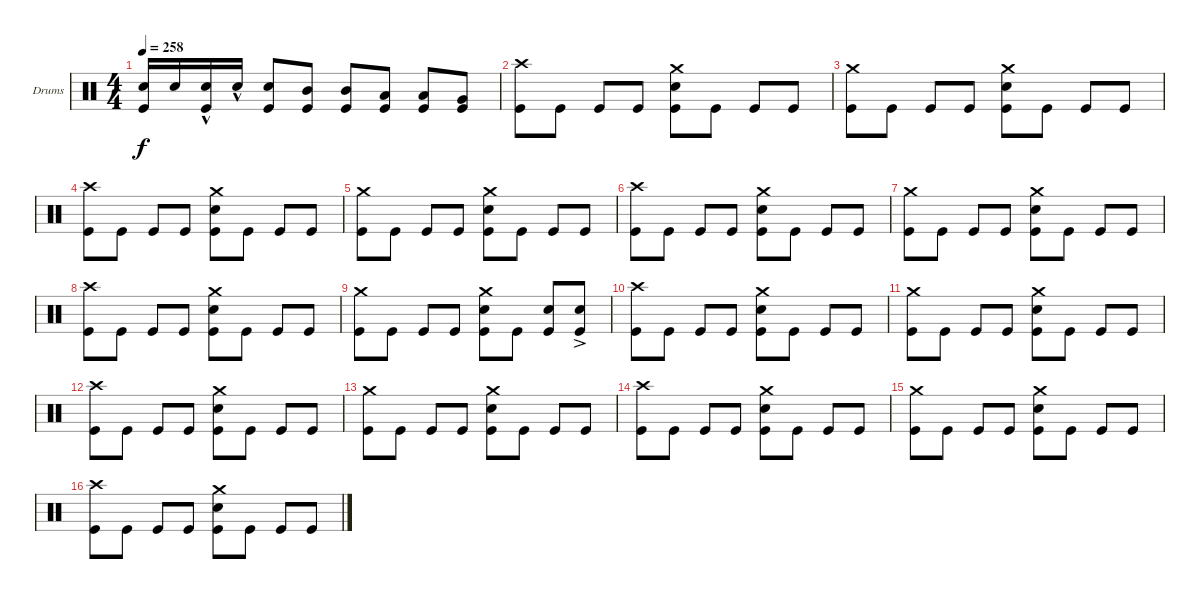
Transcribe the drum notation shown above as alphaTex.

\defaultSystemsLayout 4
\bracketExtendMode groupsimilarinstruments
\firstSystemTrackNameOrientation horizontal
\otherSystemsTrackNameOrientation horizontal
\track ("Drumkit" "Drums") {instrument percussion}
\staff {score}
\articulation defaults
\ts (4 4)
\tempo 258
\clef neutral
\ks c
("Snare (hit) 2" "Kick (hit)").16{dy f} "Snare (hit) 2".16 ("Snare (hit) 2"{hac} "Kick (hit)").16 "Snare (hit) 2"{hac}.16 ("Snare (hit) 2" "Kick (hit)").8 ("Kick (hit)" "Mid Tom (hit)").8 ("Mid Tom (hit)" "Kick (hit)").8 ("Low Tom (hit)" "Kick (hit)").8 ("Low Tom (hit)" "Kick (hit)").8 ("Very Low Tom (hit)" "Kick (hit)").8 |
("Kick (hit)" "Crash high (hit)").8 "Kick (hit)".8 "Kick (hit)".8 "Kick (hit)".8 ("Kick (hit)" "Crash medium (hit)" "Snare (hit) 2").8 "Kick (hit)".8 "Kick (hit)".8 "Kick (hit)".8 |
("Crash medium (hit)" "Kick (hit)").8 "Kick (hit)".8 "Kick (hit)".8 "Kick (hit)".8 ("Kick (hit)" "Snare (hit) 2" "Crash medium (hit)").8 "Kick (hit)".8 "Kick (hit)".8 "Kick (hit)".8 |
("Kick (hit)" "Crash high (hit)").8 "Kick (hit)".8 "Kick (hit)".8 "Kick (hit)".8 ("Kick (hit)" "Crash medium (hit)" "Snare (hit) 2").8 "Kick (hit)".8 "Kick (hit)".8 "Kick (hit)".8 |
("Crash medium (hit)" "Kick (hit)").8 "Kick (hit)".8 "Kick (hit)".8 "Kick (hit)".8 ("Kick (hit)" "Snare (hit) 2" "Crash medium (hit)").8 "Kick (hit)".8 "Kick (hit)".8 "Kick (hit)".8 |
("Kick (hit)" "Crash high (hit)").8 "Kick (hit)".8 "Kick (hit)".8 "Kick (hit)".8 ("Kick (hit)" "Crash medium (hit)" "Snare (hit) 2").8 "Kick (hit)".8 "Kick (hit)".8 "Kick (hit)".8 |
("Crash medium (hit)" "Kick (hit)").8 "Kick (hit)".8 "Kick (hit)".8 "Kick (hit)".8 ("Kick (hit)" "Snare (hit) 2" "Crash medium (hit)").8 "Kick (hit)".8 "Kick (hit)".8 "Kick (hit)".8 |
("Kick (hit)" "Crash high (hit)").8 "Kick (hit)".8 "Kick (hit)".8 "Kick (hit)".8 ("Kick (hit)" "Crash medium (hit)" "Snare (hit) 2").8 "Kick (hit)".8 "Kick (hit)".8 "Kick (hit)".8 |
("Crash medium (hit)" "Kick (hit)").8 "Kick (hit)".8 "Kick (hit)".8 "Kick (hit)".8 ("Kick (hit)" "Snare (hit) 2" "Crash medium (hit)").8 "Kick (hit)".8 ("Kick (hit)" "Snare (hit) 2").8 ("Kick (hit)" "Snare (hit) 2"{ac}).8 |
("Kick (hit)" "Crash high (hit)").8 "Kick (hit)".8 "Kick (hit)".8 "Kick (hit)".8 ("Kick (hit)" "Crash medium (hit)" "Snare (hit) 2").8 "Kick (hit)".8 "Kick (hit)".8 "Kick (hit)".8 |
("Crash medium (hit)" "Kick (hit)").8 "Kick (hit)".8 "Kick (hit)".8 "Kick (hit)".8 ("Kick (hit)" "Snare (hit) 2" "Crash medium (hit)").8 "Kick (hit)".8 "Kick (hit)".8 "Kick (hit)".8 |
("Kick (hit)" "Crash high (hit)").8 "Kick (hit)".8 "Kick (hit)".8 "Kick (hit)".8 ("Kick (hit)" "Crash medium (hit)" "Snare (hit) 2").8 "Kick (hit)".8 "Kick (hit)".8 "Kick (hit)".8 |
("Crash medium (hit)" "Kick (hit)").8 "Kick (hit)".8 "Kick (hit)".8 "Kick (hit)".8 ("Kick (hit)" "Snare (hit) 2" "Crash medium (hit)").8 "Kick (hit)".8 "Kick (hit)".8 "Kick (hit)".8 |
("Kick (hit)" "Crash high (hit)").8 "Kick (hit)".8 "Kick (hit)".8 "Kick (hit)".8 ("Kick (hit)" "Crash medium (hit)" "Snare (hit) 2").8 "Kick (hit)".8 "Kick (hit)".8 "Kick (hit)".8 |
("Crash medium (hit)" "Kick (hit)").8 "Kick (hit)".8 "Kick (hit)".8 "Kick (hit)".8 ("Kick (hit)" "Snare (hit) 2" "Crash medium (hit)").8 "Kick (hit)".8 "Kick (hit)".8 "Kick (hit)".8 |
("Kick (hit)" "Crash high (hit)").8 "Kick (hit)".8 "Kick (hit)".8 "Kick (hit)".8 ("Kick (hit)" "Crash medium (hit)" "Snare (hit) 2").8 "Kick (hit)".8 "Kick (hit)".8 "Kick (hit)".8
